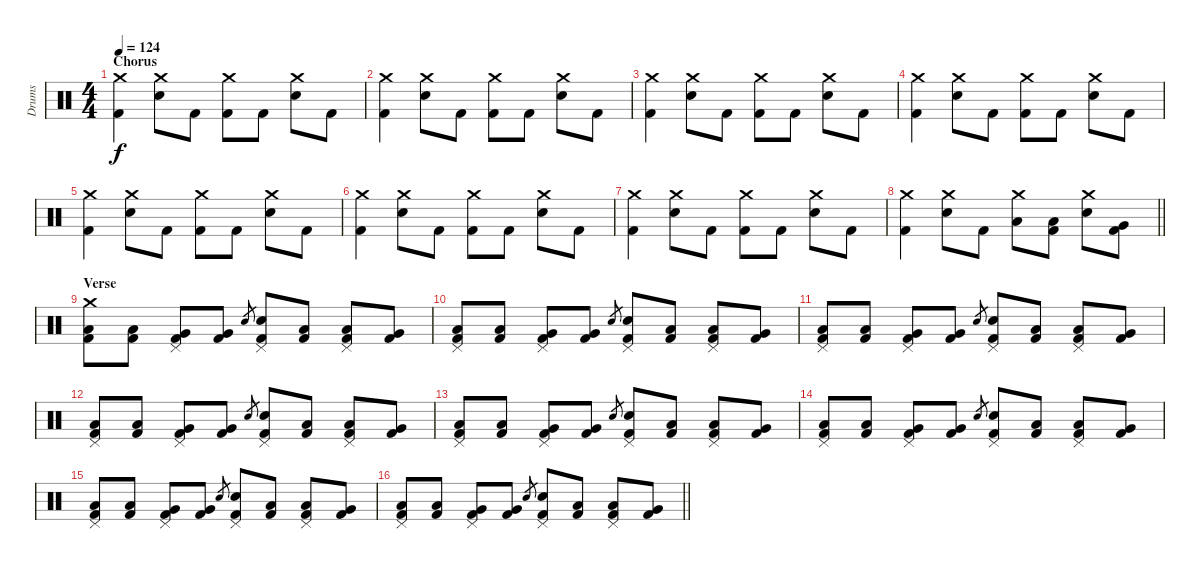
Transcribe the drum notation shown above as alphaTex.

\track ("Drums" "Drums") {instrument percussion}
\staff {score}
\articulation defaults
\ts (4 4)
\section ("" "Chorus")
\tempo 124
\clef neutral
\ks c
("Crash medium (hit)" "Kick (hit) 2").4{dy f} ("Crash medium (hit)" "Electric Snare (hit)").8 "Kick (hit) 2".8 ("Crash medium (hit)" "Kick (hit) 2").8 "Kick (hit) 2".8 ("Crash medium (hit)" "Electric Snare (hit)").8 "Kick (hit) 2".8 |
("Crash medium (hit)" "Kick (hit) 2").4 ("Crash medium (hit)" "Electric Snare (hit)").8 "Kick (hit) 2".8 ("Crash medium (hit)" "Kick (hit) 2").8 "Kick (hit) 2".8 ("Crash medium (hit)" "Electric Snare (hit)").8 "Kick (hit) 2".8 |
("Crash medium (hit)" "Kick (hit) 2").4 ("Crash medium (hit)" "Electric Snare (hit)").8 "Kick (hit) 2".8 ("Crash medium (hit)" "Kick (hit) 2").8 "Kick (hit) 2".8 ("Crash medium (hit)" "Electric Snare (hit)").8 "Kick (hit) 2".8 |
("Crash medium (hit)" "Kick (hit) 2").4 ("Crash medium (hit)" "Electric Snare (hit)").8 "Kick (hit) 2".8 ("Crash medium (hit)" "Kick (hit) 2").8 "Kick (hit) 2".8 ("Crash medium (hit)" "Electric Snare (hit)").8 "Kick (hit) 2".8 |
("Crash medium (hit)" "Kick (hit) 2").4 ("Crash medium (hit)" "Electric Snare (hit)").8 "Kick (hit) 2".8 ("Crash medium (hit)" "Kick (hit) 2").8 "Kick (hit) 2".8 ("Crash medium (hit)" "Electric Snare (hit)").8 "Kick (hit) 2".8 |
("Crash medium (hit)" "Kick (hit) 2").4 ("Crash medium (hit)" "Electric Snare (hit)").8 "Kick (hit) 2".8 ("Crash medium (hit)" "Kick (hit) 2").8 "Kick (hit) 2".8 ("Crash medium (hit)" "Electric Snare (hit)").8 "Kick (hit) 2".8 |
("Crash medium (hit)" "Kick (hit) 2").4 ("Crash medium (hit)" "Electric Snare (hit)").8 "Kick (hit) 2".8 ("Crash medium (hit)" "Kick (hit) 2").8 "Kick (hit) 2".8 ("Crash medium (hit)" "Electric Snare (hit)").8 "Kick (hit) 2".8 |
\barLineRight lightlight
("Crash medium (hit)" "Kick (hit) 2").4 ("Crash medium (hit)" "Electric Snare (hit)").8 "Kick (hit) 2".8 ("Crash medium (hit)" "Low Tom (hit)").8 ("Low Tom (hit)" "Kick (hit) 2").8 ("Crash medium (hit)" "Electric Snare (hit)").8 ("Very Low Tom (hit)" "Kick (hit) 2").8 |
\section ("" "Verse")
("Crash medium (hit)" "Low Tom (hit)" "Kick (hit) 2").8 ("Low Tom (hit)" "Kick (hit) 2").8 ("Pedal Hi-Hat (hit)" "Very Low Tom (hit)" "Kick (hit) 2").8 ("Very Low Tom (hit)" "Kick (hit) 2").8 "Electric Snare (hit)".8{gr} ("Pedal Hi-Hat (hit)" "Electric Snare (hit)" "Kick (hit) 2").8 ("Low Tom (hit)" "Kick (hit) 2").8 ("Pedal Hi-Hat (hit)" "Low Tom (hit)" "Kick (hit) 2").8 ("Very Low Tom (hit)" "Kick (hit) 2").8 |
("Pedal Hi-Hat (hit)" "Low Tom (hit)" "Kick (hit) 2").8 ("Low Tom (hit)" "Kick (hit) 2").8 ("Pedal Hi-Hat (hit)" "Very Low Tom (hit)" "Kick (hit) 2").8 ("Very Low Tom (hit)" "Kick (hit) 2").8 "Electric Snare (hit)".8{gr} ("Pedal Hi-Hat (hit)" "Electric Snare (hit)" "Kick (hit) 2").8 ("Low Tom (hit)" "Kick (hit) 2").8 ("Pedal Hi-Hat (hit)" "Low Tom (hit)" "Kick (hit) 2").8 ("Very Low Tom (hit)" "Kick (hit) 2").8 |
("Pedal Hi-Hat (hit)" "Low Tom (hit)" "Kick (hit) 2").8 ("Low Tom (hit)" "Kick (hit) 2").8 ("Pedal Hi-Hat (hit)" "Very Low Tom (hit)" "Kick (hit) 2").8 ("Very Low Tom (hit)" "Kick (hit) 2").8 "Electric Snare (hit)".8{gr} ("Pedal Hi-Hat (hit)" "Electric Snare (hit)" "Kick (hit) 2").8 ("Low Tom (hit)" "Kick (hit) 2").8 ("Pedal Hi-Hat (hit)" "Low Tom (hit)" "Kick (hit) 2").8 ("Very Low Tom (hit)" "Kick (hit) 2").8 |
("Pedal Hi-Hat (hit)" "Low Tom (hit)" "Kick (hit) 2").8 ("Low Tom (hit)" "Kick (hit) 2").8 ("Pedal Hi-Hat (hit)" "Very Low Tom (hit)" "Kick (hit) 2").8 ("Very Low Tom (hit)" "Kick (hit) 2").8 "Electric Snare (hit)".8{gr} ("Pedal Hi-Hat (hit)" "Electric Snare (hit)" "Kick (hit) 2").8 ("Low Tom (hit)" "Kick (hit) 2").8 ("Pedal Hi-Hat (hit)" "Low Tom (hit)" "Kick (hit) 2").8 ("Very Low Tom (hit)" "Kick (hit) 2").8 |
("Pedal Hi-Hat (hit)" "Low Tom (hit)" "Kick (hit) 2").8 ("Low Tom (hit)" "Kick (hit) 2").8 ("Pedal Hi-Hat (hit)" "Very Low Tom (hit)" "Kick (hit) 2").8 ("Very Low Tom (hit)" "Kick (hit) 2").8 "Electric Snare (hit)".8{gr} ("Pedal Hi-Hat (hit)" "Electric Snare (hit)" "Kick (hit) 2").8 ("Low Tom (hit)" "Kick (hit) 2").8 ("Pedal Hi-Hat (hit)" "Low Tom (hit)" "Kick (hit) 2").8 ("Very Low Tom (hit)" "Kick (hit) 2").8 |
("Pedal Hi-Hat (hit)" "Low Tom (hit)" "Kick (hit) 2").8 ("Low Tom (hit)" "Kick (hit) 2").8 ("Pedal Hi-Hat (hit)" "Very Low Tom (hit)" "Kick (hit) 2").8 ("Very Low Tom (hit)" "Kick (hit) 2").8 "Electric Snare (hit)".8{gr} ("Pedal Hi-Hat (hit)" "Electric Snare (hit)" "Kick (hit) 2").8 ("Low Tom (hit)" "Kick (hit) 2").8 ("Pedal Hi-Hat (hit)" "Low Tom (hit)" "Kick (hit) 2").8 ("Very Low Tom (hit)" "Kick (hit) 2").8 |
("Pedal Hi-Hat (hit)" "Low Tom (hit)" "Kick (hit) 2").8 ("Low Tom (hit)" "Kick (hit) 2").8 ("Pedal Hi-Hat (hit)" "Very Low Tom (hit)" "Kick (hit) 2").8 ("Very Low Tom (hit)" "Kick (hit) 2").8 "Electric Snare (hit)".8{gr} ("Pedal Hi-Hat (hit)" "Electric Snare (hit)" "Kick (hit) 2").8 ("Low Tom (hit)" "Kick (hit) 2").8 ("Pedal Hi-Hat (hit)" "Low Tom (hit)" "Kick (hit) 2").8 ("Very Low Tom (hit)" "Kick (hit) 2").8 |
\barLineRight lightlight
("Pedal Hi-Hat (hit)" "Low Tom (hit)" "Kick (hit) 2").8 ("Low Tom (hit)" "Kick (hit) 2").8 ("Pedal Hi-Hat (hit)" "Very Low Tom (hit)" "Kick (hit) 2").8 ("Very Low Tom (hit)" "Kick (hit) 2").8 "Electric Snare (hit)".8{gr} ("Pedal Hi-Hat (hit)" "Electric Snare (hit)" "Kick (hit) 2").8 ("Low Tom (hit)" "Kick (hit) 2").8 ("Pedal Hi-Hat (hit)" "Low Tom (hit)" "Kick (hit) 2").8 ("Very Low Tom (hit)" "Kick (hit) 2").8
